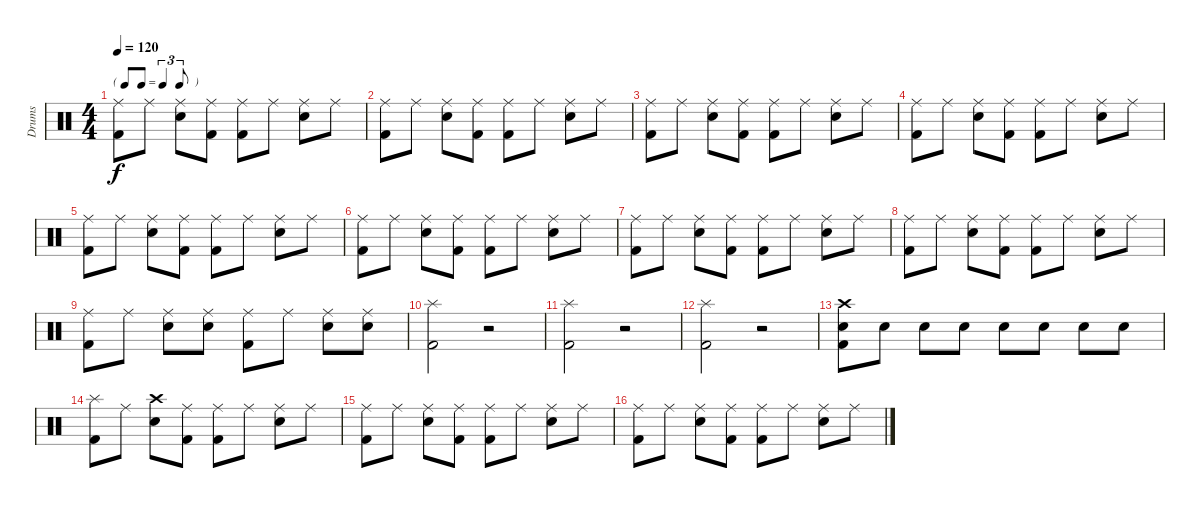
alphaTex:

\track ("Drums" "Drums") {instrument percussion}
\staff {score}
\articulation defaults
\ts (4 4)
\tf triplet8th
\tempo 120
\clef neutral
\ks c
("Ride (middle)" "Kick (hit) 2").8{dy f} "Ride (middle)".8 ("Ride (middle)" "Electric Snare (hit)").8 ("Ride (middle)" "Kick (hit) 2").8 ("Ride (middle)" "Kick (hit) 2").8 "Ride (middle)".8 ("Ride (middle)" "Electric Snare (hit)").8 "Ride (middle)".8 |
("Ride (middle)" "Kick (hit) 2").8 "Ride (middle)".8 ("Ride (middle)" "Electric Snare (hit)").8 ("Ride (middle)" "Kick (hit) 2").8 ("Ride (middle)" "Kick (hit) 2").8 "Ride (middle)".8 ("Ride (middle)" "Electric Snare (hit)").8 "Ride (middle)".8 |
("Ride (middle)" "Kick (hit) 2").8 "Ride (middle)".8 ("Ride (middle)" "Electric Snare (hit)").8 ("Ride (middle)" "Kick (hit) 2").8 ("Ride (middle)" "Kick (hit) 2").8 "Ride (middle)".8 ("Ride (middle)" "Electric Snare (hit)").8 "Ride (middle)".8 |
("Ride (middle)" "Kick (hit) 2").8 "Ride (middle)".8 ("Ride (middle)" "Electric Snare (hit)").8 ("Ride (middle)" "Kick (hit) 2").8 ("Ride (middle)" "Kick (hit) 2").8 "Ride (middle)".8 ("Ride (middle)" "Electric Snare (hit)").8 "Ride (middle)".8 |
("Ride (middle)" "Kick (hit) 2").8 "Ride (middle)".8 ("Ride (middle)" "Electric Snare (hit)").8 ("Ride (middle)" "Kick (hit) 2").8 ("Ride (middle)" "Kick (hit) 2").8 "Ride (middle)".8 ("Ride (middle)" "Electric Snare (hit)").8 "Ride (middle)".8 |
("Ride (middle)" "Kick (hit) 2").8 "Ride (middle)".8 ("Ride (middle)" "Electric Snare (hit)").8 ("Ride (middle)" "Kick (hit) 2").8 ("Ride (middle)" "Kick (hit) 2").8 "Ride (middle)".8 ("Ride (middle)" "Electric Snare (hit)").8 "Ride (middle)".8 |
("Ride (middle)" "Kick (hit) 2").8 "Ride (middle)".8 ("Ride (middle)" "Electric Snare (hit)").8 ("Ride (middle)" "Kick (hit) 2").8 ("Ride (middle)" "Kick (hit) 2").8 "Ride (middle)".8 ("Ride (middle)" "Electric Snare (hit)").8 "Ride (middle)".8 |
("Ride (middle)" "Kick (hit) 2").8 "Ride (middle)".8 ("Ride (middle)" "Electric Snare (hit)").8 ("Ride (middle)" "Kick (hit) 2").8 ("Ride (middle)" "Kick (hit) 2").8 "Ride (middle)".8 ("Ride (middle)" "Electric Snare (hit)").8 "Ride (middle)".8 |
("Ride (middle)" "Kick (hit) 2").8 "Ride (middle)".8 ("Ride (middle)" "Electric Snare (hit)").8 ("Ride (middle)" "Electric Snare (hit)").8 ("Ride (middle)" "Kick (hit) 2").8 "Ride (middle)".8 ("Ride (middle)" "Electric Snare (hit)").8 ("Ride (middle)" "Electric Snare (hit)").8 |
("Splash (hit)" "Kick (hit) 2").2 r.2 |
("Splash (hit)" "Kick (hit) 2").2 r.2 |
("Splash (hit)" "Kick (hit) 2").2 r.2 |
("Crash high (hit)" "Electric Snare (hit)" "Kick (hit) 2").8 "Electric Snare (hit)".8 "Electric Snare (hit)".8 "Electric Snare (hit)".8 "Electric Snare (hit)".8 "Electric Snare (hit)".8 "Electric Snare (hit)".8 "Electric Snare (hit)".8 |
("Splash (hit)" "Kick (hit) 2").8 "Ride (middle)".8 ("Crash high (hit)" "Electric Snare (hit)").8 ("Ride (middle)" "Kick (hit) 2").8 ("Ride (middle)" "Kick (hit) 2").8 "Ride (middle)".8 ("Ride (middle)" "Electric Snare (hit)").8 "Ride (middle)".8 |
("Ride (middle)" "Kick (hit) 2").8 "Ride (middle)".8 ("Ride (middle)" "Electric Snare (hit)").8 ("Ride (middle)" "Kick (hit) 2").8 ("Ride (middle)" "Kick (hit) 2").8 "Ride (middle)".8 ("Ride (middle)" "Electric Snare (hit)").8 "Ride (middle)".8 |
("Ride (middle)" "Kick (hit) 2").8 "Ride (middle)".8 ("Ride (middle)" "Electric Snare (hit)").8 ("Ride (middle)" "Kick (hit) 2").8 ("Ride (middle)" "Kick (hit) 2").8 "Ride (middle)".8 ("Ride (middle)" "Electric Snare (hit)").8 "Ride (middle)".8
